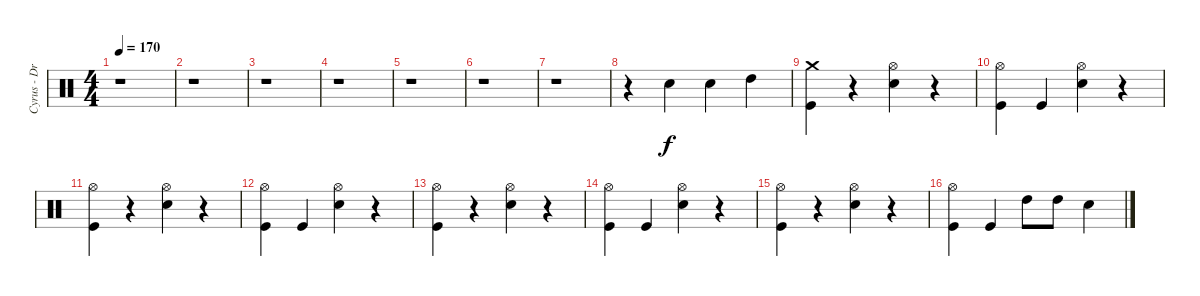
\track ("Cyrus - Drums" "Cyrus - Dr") {instrument percussion}
\staff {score}
\articulation defaults
\ts (4 4)
\tempo 170
\clef neutral
\ks c
r.1{dy f} |
r.1 |
r.1 |
r.1 |
r.1 |
r.1 |
r.1 |
r.4 "Electric Snare (hit)".4 "Electric Snare (hit)".4 "High Tom (hit)".4 |
("Crash medium (hit)" "Kick (hit)").4 r.4 ("Hi-Hat (open)" "Electric Snare (hit)").4 r.4 |
("Hi-Hat (open)" "Kick (hit)").4 "Kick (hit)".4 ("Hi-Hat (open)" "Electric Snare (hit)").4 r.4 |
("Hi-Hat (open)" "Kick (hit)").4 r.4 ("Hi-Hat (open)" "Electric Snare (hit)").4 r.4 |
("Hi-Hat (open)" "Kick (hit)").4 "Kick (hit)".4 ("Hi-Hat (open)" "Electric Snare (hit)").4 r.4 |
("Hi-Hat (open)" "Kick (hit)").4 r.4 ("Hi-Hat (open)" "Electric Snare (hit)").4 r.4 |
("Hi-Hat (open)" "Kick (hit)").4 "Kick (hit)".4 ("Hi-Hat (open)" "Electric Snare (hit)").4 r.4 |
("Hi-Hat (open)" "Kick (hit)").4 r.4 ("Hi-Hat (open)" "Electric Snare (hit)").4 r.4 |
("Hi-Hat (open)" "Kick (hit)").4 "Kick (hit)".4 "High Tom (hit)".8 "High Tom (hit)".8 "Electric Snare (hit)".4
